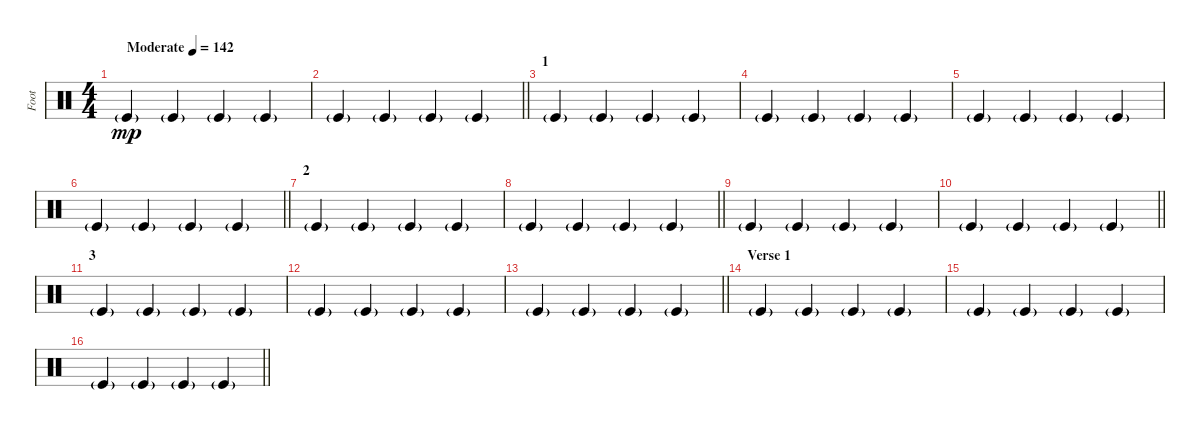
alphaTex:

\track ("Foot" "Foot") {instrument percussion}
\staff {score}
\articulation defaults
\ts (4 4)
\tempo (142 "Moderate")
\clef neutral
\ks c "Kick (hit)"{g}.4{dy mp} "Kick (hit)"{g}.4 "Kick (hit)"{g}.4 "Kick (hit)"{g}.4
|
\barLineRight lightlight "Kick (hit)"{g}.4 "Kick (hit)"{g}.4 "Kick (hit)"{g}.4 "Kick (hit)"{g}.4
|
\section ("" "1")
"Kick (hit)"{g}.4 "Kick (hit)"{g}.4 "Kick (hit)"{g}.4 "Kick (hit)"{g}.4 |
"Kick (hit)"{g}.4 "Kick (hit)"{g}.4 "Kick (hit)"{g}.4 "Kick (hit)"{g}.4 |
"Kick (hit)"{g}.4 "Kick (hit)"{g}.4 "Kick (hit)"{g}.4 "Kick (hit)"{g}.4 |
\barLineRight lightlight "Kick (hit)"{g}.4 "Kick (hit)"{g}.4 "Kick (hit)"{g}.4 "Kick (hit)"{g}.4
|
\section ("" "2")
"Kick (hit)"{g}.4 "Kick (hit)"{g}.4 "Kick (hit)"{g}.4 "Kick (hit)"{g}.4 |
\barLineRight lightlight "Kick (hit)"{g}.4 "Kick (hit)"{g}.4 "Kick (hit)"{g}.4 "Kick (hit)"{g}.4
|
"Kick (hit)"{g}.4 "Kick (hit)"{g}.4 "Kick (hit)"{g}.4 "Kick (hit)"{g}.4 |
\barLineRight lightlight "Kick (hit)"{g}.4 "Kick (hit)"{g}.4 "Kick (hit)"{g}.4 "Kick (hit)"{g}.4
|
\section ("" "3")
"Kick (hit)"{g}.4 "Kick (hit)"{g}.4 "Kick (hit)"{g}.4 "Kick (hit)"{g}.4 |
"Kick (hit)"{g}.4 "Kick (hit)"{g}.4 "Kick (hit)"{g}.4 "Kick (hit)"{g}.4 |
\barLineRight lightlight "Kick (hit)"{g}.4 "Kick (hit)"{g}.4 "Kick (hit)"{g}.4 "Kick (hit)"{g}.4
|
\section ("" "Verse 1")
"Kick (hit)"{g}.4 "Kick (hit)"{g}.4 "Kick (hit)"{g}.4 "Kick (hit)"{g}.4 |
"Kick (hit)"{g}.4 "Kick (hit)"{g}.4 "Kick (hit)"{g}.4 "Kick (hit)"{g}.4 |
\barLineRight lightlight "Kick (hit)"{g}.4 "Kick (hit)"{g}.4 "Kick (hit)"{g}.4 "Kick (hit)"{g}.4
